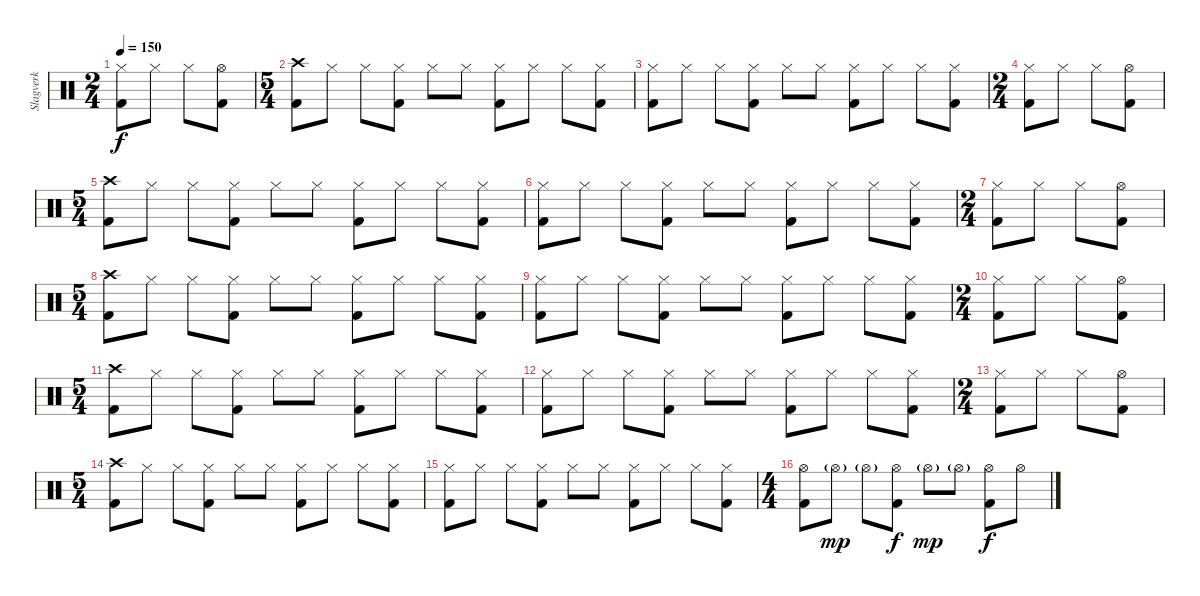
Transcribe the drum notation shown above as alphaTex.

\track ("Slagverk" "Slagverk") {instrument percussion}
\staff {score}
\articulation defaults
\ts (2 4)
\tempo 150
\clef neutral
\ks c
("Hi-Hat (closed)" "Kick (hit) 2").8{dy f} "Hi-Hat (closed)".8 "Hi-Hat (closed)".8 ("Hi-Hat (open)" "Kick (hit) 2").8 |
\ts (5 4)
("Crash high (hit)" "Kick (hit) 2").8 "Hi-Hat (closed)".8 "Hi-Hat (closed)".8 ("Hi-Hat (closed)" "Kick (hit) 2").8 "Hi-Hat (closed)".8 "Hi-Hat (closed)".8 ("Hi-Hat (closed)" "Kick (hit) 2").8 "Hi-Hat (closed)".8 "Hi-Hat (closed)".8 ("Hi-Hat (closed)" "Kick (hit) 2").8 |
("Hi-Hat (closed)" "Kick (hit) 2").8 "Hi-Hat (closed)".8 "Hi-Hat (closed)".8 ("Hi-Hat (closed)" "Kick (hit) 2").8 "Hi-Hat (closed)".8 "Hi-Hat (closed)".8 ("Hi-Hat (closed)" "Kick (hit) 2").8 "Hi-Hat (closed)".8 "Hi-Hat (closed)".8 ("Hi-Hat (closed)" "Kick (hit) 2").8 |
\ts (2 4)
("Hi-Hat (closed)" "Kick (hit) 2").8 "Hi-Hat (closed)".8 "Hi-Hat (closed)".8 ("Hi-Hat (open)" "Kick (hit) 2").8 |
\ts (5 4)
("Crash high (hit)" "Kick (hit) 2").8 "Hi-Hat (closed)".8 "Hi-Hat (closed)".8 ("Hi-Hat (closed)" "Kick (hit) 2").8 "Hi-Hat (closed)".8 "Hi-Hat (closed)".8 ("Hi-Hat (closed)" "Kick (hit) 2").8 "Hi-Hat (closed)".8 "Hi-Hat (closed)".8 ("Hi-Hat (closed)" "Kick (hit) 2").8 |
("Hi-Hat (closed)" "Kick (hit) 2").8 "Hi-Hat (closed)".8 "Hi-Hat (closed)".8 ("Hi-Hat (closed)" "Kick (hit) 2").8 "Hi-Hat (closed)".8 "Hi-Hat (closed)".8 ("Hi-Hat (closed)" "Kick (hit) 2").8 "Hi-Hat (closed)".8 "Hi-Hat (closed)".8 ("Hi-Hat (closed)" "Kick (hit) 2").8 |
\ts (2 4)
("Hi-Hat (closed)" "Kick (hit) 2").8 "Hi-Hat (closed)".8 "Hi-Hat (closed)".8 ("Hi-Hat (open)" "Kick (hit) 2").8 |
\ts (5 4)
("Crash high (hit)" "Kick (hit) 2").8 "Hi-Hat (closed)".8 "Hi-Hat (closed)".8 ("Hi-Hat (closed)" "Kick (hit) 2").8 "Hi-Hat (closed)".8 "Hi-Hat (closed)".8 ("Hi-Hat (closed)" "Kick (hit) 2").8 "Hi-Hat (closed)".8 "Hi-Hat (closed)".8 ("Hi-Hat (closed)" "Kick (hit) 2").8 |
("Hi-Hat (closed)" "Kick (hit) 2").8 "Hi-Hat (closed)".8 "Hi-Hat (closed)".8 ("Hi-Hat (closed)" "Kick (hit) 2").8 "Hi-Hat (closed)".8 "Hi-Hat (closed)".8 ("Hi-Hat (closed)" "Kick (hit) 2").8 "Hi-Hat (closed)".8 "Hi-Hat (closed)".8 ("Hi-Hat (closed)" "Kick (hit) 2").8 |
\ts (2 4)
("Hi-Hat (closed)" "Kick (hit) 2").8 "Hi-Hat (closed)".8 "Hi-Hat (closed)".8 ("Hi-Hat (open)" "Kick (hit) 2").8 |
\ts (5 4)
("Crash high (hit)" "Kick (hit) 2").8 "Hi-Hat (closed)".8 "Hi-Hat (closed)".8 ("Hi-Hat (closed)" "Kick (hit) 2").8 "Hi-Hat (closed)".8 "Hi-Hat (closed)".8 ("Hi-Hat (closed)" "Kick (hit) 2").8 "Hi-Hat (closed)".8 "Hi-Hat (closed)".8 ("Hi-Hat (closed)" "Kick (hit) 2").8 |
("Hi-Hat (closed)" "Kick (hit) 2").8 "Hi-Hat (closed)".8 "Hi-Hat (closed)".8 ("Hi-Hat (closed)" "Kick (hit) 2").8 "Hi-Hat (closed)".8 "Hi-Hat (closed)".8 ("Hi-Hat (closed)" "Kick (hit) 2").8 "Hi-Hat (closed)".8 "Hi-Hat (closed)".8 ("Hi-Hat (closed)" "Kick (hit) 2").8 |
\ts (2 4)
("Hi-Hat (closed)" "Kick (hit) 2").8 "Hi-Hat (closed)".8 "Hi-Hat (closed)".8 ("Hi-Hat (open)" "Kick (hit) 2").8 |
\ts (5 4)
("Crash high (hit)" "Kick (hit) 2").8 "Hi-Hat (closed)".8 "Hi-Hat (closed)".8 ("Hi-Hat (closed)" "Kick (hit) 2").8 "Hi-Hat (closed)".8 "Hi-Hat (closed)".8 ("Hi-Hat (closed)" "Kick (hit) 2").8 "Hi-Hat (closed)".8 "Hi-Hat (closed)".8 ("Hi-Hat (closed)" "Kick (hit) 2").8 |
("Hi-Hat (closed)" "Kick (hit) 2").8 "Hi-Hat (closed)".8 "Hi-Hat (closed)".8 ("Hi-Hat (closed)" "Kick (hit) 2").8 "Hi-Hat (closed)".8 "Hi-Hat (closed)".8 ("Hi-Hat (closed)" "Kick (hit) 2").8 "Hi-Hat (closed)".8 "Hi-Hat (closed)".8 ("Hi-Hat (closed)" "Kick (hit) 2").8 |
\ts (4 4)
("Hi-Hat (open)" "Kick (hit) 2").8 "Hi-Hat (open)"{g}.8{dy mp} "Hi-Hat (open)"{g}.8 ("Hi-Hat (open)" "Kick (hit) 2").8{dy f} "Hi-Hat (open)"{g}.8{dy mp} "Hi-Hat (open)"{g}.8 ("Hi-Hat (open)" "Kick (hit) 2").8{dy f} "Hi-Hat (open)".8
